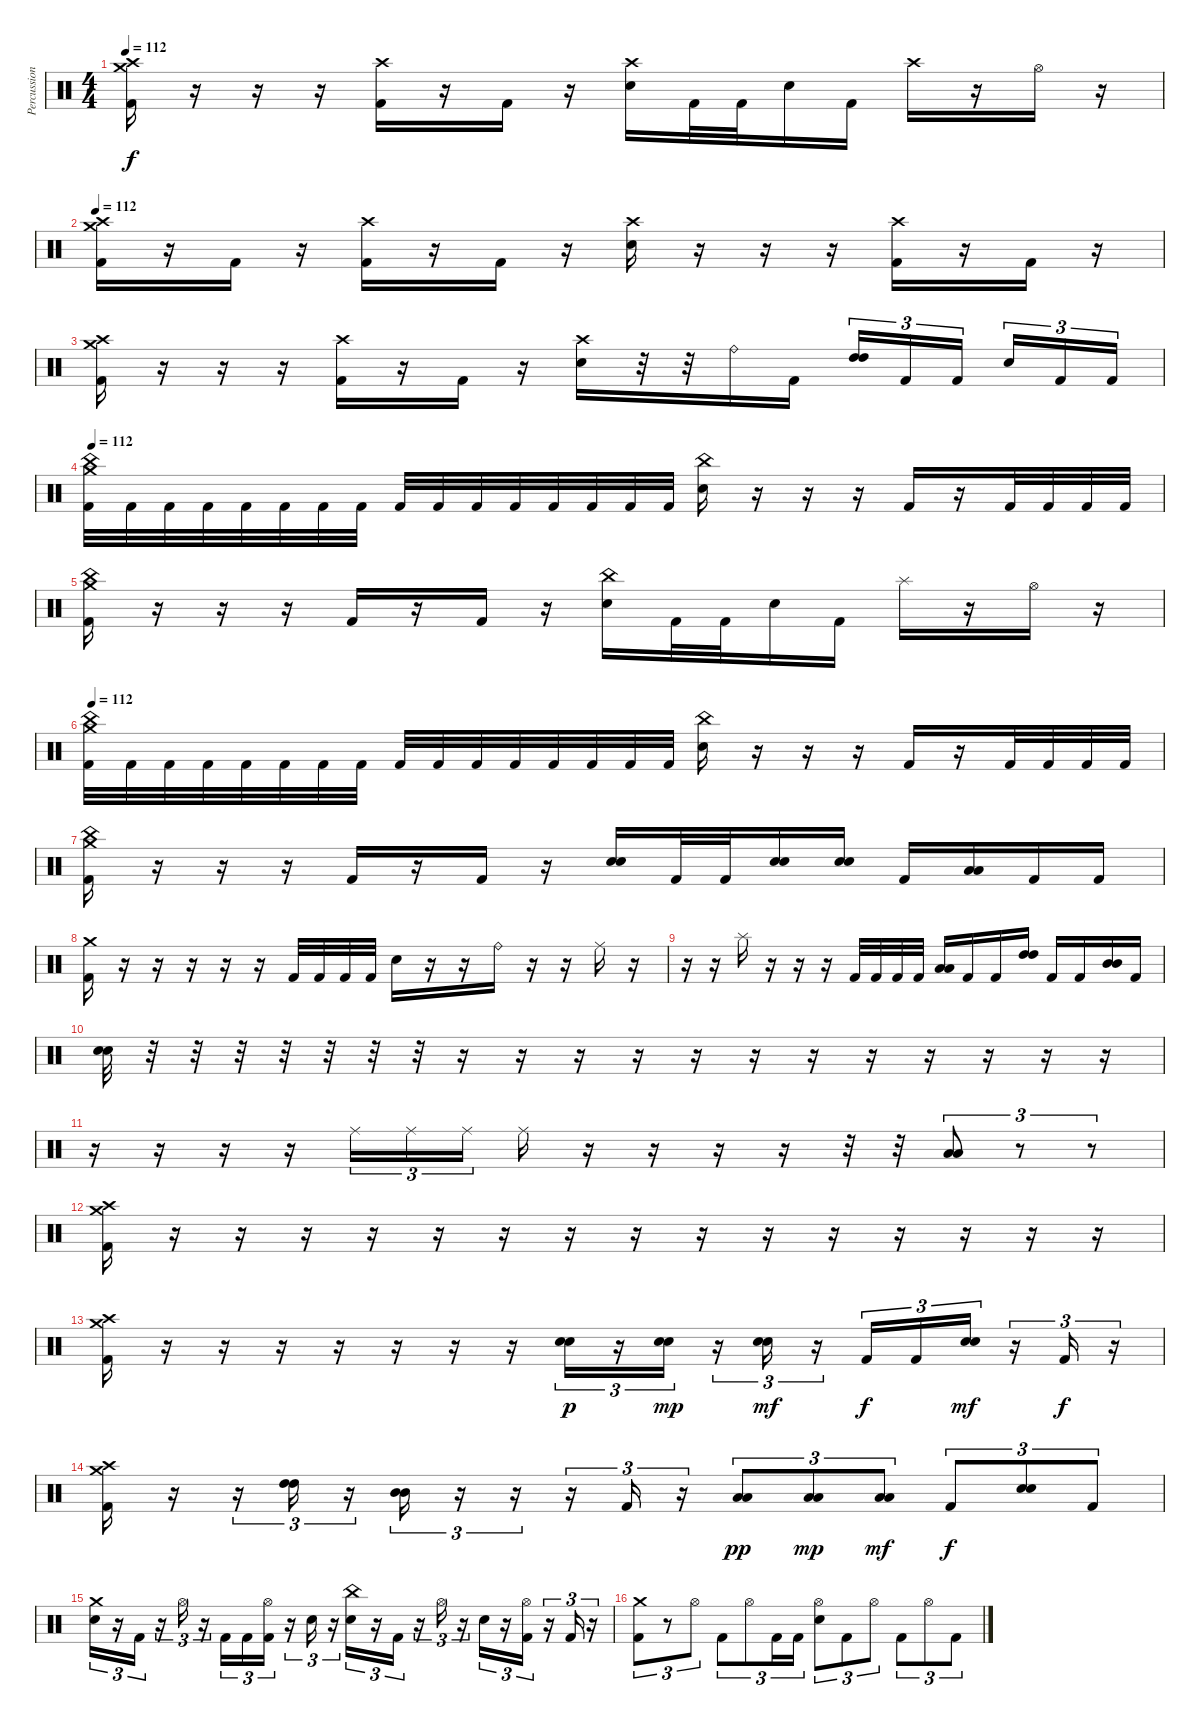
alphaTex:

\track ("Percussion" "Percussion") {instrument percussion}
\staff {score}
\articulation defaults
\ts (4 4)
\tempo 112
\clef neutral
\ks c
("Crash medium (hit)" "Crash high (hit)" "Kick (hit) 2").16{dy f} r.16 r.16 r.16 ("Crash high (hit)" "Kick (hit) 2").16 r.16 "Kick (hit) 2".16 r.16 ("Crash high (hit)" "Electric Snare (hit)").16 "Kick (hit) 2".32 "Kick (hit) 2".32 "Electric Snare (hit)".16 "Kick (hit) 2".16 "Crash high (hit)".16 r.16 "Hi-Hat (open)".16 r.16 |
\tempo 112
("Crash medium (hit)" "Crash high (hit)" "Kick (hit) 2").16 r.16 "Kick (hit) 2".16 r.16 ("Crash high (hit)" "Kick (hit) 2").16 r.16 "Kick (hit) 2".16 r.16 ("Crash high (hit)" "Electric Snare (hit)").16 r.16 r.16 r.16 ("Crash high (hit)" "Kick (hit) 2").16 r.16 "Kick (hit) 2".16 r.16 |
("Crash medium (hit)" "Crash high (hit)" "Kick (hit) 2").16 r.16 r.16 r.16 ("Crash high (hit)" "Kick (hit) 2").16 r.16 "Kick (hit) 2".16 r.16 ("Crash high (hit)" "Electric Snare (hit)").16 r.32 r.32 "Ride (bell)".16 "Kick (hit) 2".16 ("High Tom (hit)" "High Tom (hit)").16{tu (3 2) bu 60} "Kick (hit) 2".16{tu (3 2)} "Kick (hit) 2".16{tu (3 2) beam splitsecondary} "Electric Snare (hit)".16{tu (3 2)} "Kick (hit) 2".16{tu (3 2)} "Kick (hit) 2".16{tu (3 2)} |
\tempo 112
("Crash medium (hit)" "China (hit)" "Kick (hit) 2").32 "Kick (hit) 2".32 "Kick (hit) 2".32 "Kick (hit) 2".32 "Kick (hit) 2".32 "Kick (hit) 2".32 "Kick (hit) 2".32 "Kick (hit) 2".32 "Kick (hit) 2".32 "Kick (hit) 2".32 "Kick (hit) 2".32 "Kick (hit) 2".32 "Kick (hit) 2".32 "Kick (hit) 2".32 "Kick (hit) 2".32 "Kick (hit) 2".32 ("China (hit)" "Electric Snare (hit)").16 r.16 r.16 r.16 "Kick (hit) 2".16 r.16 "Kick (hit) 2".32 "Kick (hit) 2".32 "Kick (hit) 2".32 "Kick (hit) 2".32 |
("Crash medium (hit)" "China (hit)" "Kick (hit) 2").16 r.16 r.16 r.16 "Kick (hit) 2".16 r.16 "Kick (hit) 2".16 r.16 ("China (hit)" "Electric Snare (hit)").16 "Kick (hit) 2".32 "Kick (hit) 2".32 "Electric Snare (hit)".16 "Kick (hit) 2".16 "Splash (hit)".16 r.16 "Hi-Hat (open)".16 r.16 |
\tempo 112
("Crash medium (hit)" "China (hit)" "Kick (hit) 2").32 "Kick (hit) 2".32 "Kick (hit) 2".32 "Kick (hit) 2".32 "Kick (hit) 2".32 "Kick (hit) 2".32 "Kick (hit) 2".32 "Kick (hit) 2".32 "Kick (hit) 2".32 "Kick (hit) 2".32 "Kick (hit) 2".32 "Kick (hit) 2".32 "Kick (hit) 2".32 "Kick (hit) 2".32 "Kick (hit) 2".32 "Kick (hit) 2".32 ("China (hit)" "Electric Snare (hit)").16 r.16 r.16 r.16 "Kick (hit) 2".16 r.16 "Kick (hit) 2".32 "Kick (hit) 2".32 "Kick (hit) 2".32 "Kick (hit) 2".32 |
("Crash medium (hit)" "China (hit)" "Kick (hit) 2").16 r.16 r.16 r.16 "Kick (hit) 2".16 r.16 "Kick (hit) 2".16 r.16 ("Electric Snare (hit)" "Electric Snare (hit)").16{bu 60} "Kick (hit) 2".32 "Kick (hit) 2".32 ("Electric Snare (hit)" "Electric Snare (hit)").16{bu 60} ("Electric Snare (hit)" "Electric Snare (hit)").16{bu 60} "Kick (hit) 2".16 ("Low Tom (hit)" "Low Tom (hit)").16{bu 60} "Kick (hit) 2".16 "Kick (hit) 2".16 |
("Crash medium (hit)" "Kick (hit) 2").16 r.16 r.16 r.16 r.16 r.16 "Kick (hit) 2".32 "Kick (hit) 2".32 "Kick (hit) 2".32 "Kick (hit) 2".32 "Electric Snare (hit)".16 r.16 r.16 "Ride (bell)".16 r.16 r.16 "Ride (middle)".16 r.16 |
r.16 r.16 "Splash (hit)".16 r.16 r.16 r.16 "Kick (hit) 2".32 "Kick (hit) 2".32 "Kick (hit) 2".32 "Kick (hit) 2".32 ("Low Tom (hit)" "Low Tom (hit)").16{bu 60} "Kick (hit) 2".16 "Kick (hit) 2".16 ("High Tom (hit)" "High Tom (hit)").16{bu 60} "Kick (hit) 2".16 "Kick (hit) 2".16 ("Mid Tom (hit)" "Mid Tom (hit)").16{bu 60} "Kick (hit) 2".16 |
("Electric Snare (hit)" "Electric Snare (hit)").32{bu 60} r.32 r.32 r.32 r.32 r.32 r.32 r.32 r.16 r.16 r.16 r.16 r.16 r.16 r.16 r.16 r.16 r.16 r.16 r.16 |
r.16 r.16 r.16 r.16 "Ride (middle)".16{tu (3 2)} "Ride (middle)".16{tu (3 2)} "Ride (middle)".16{tu (3 2) beam splitsecondary} "Ride (middle)".16 r.16 r.16 r.16 r.16 r.32 r.32 ("Low Tom (hit)" "Low Tom (hit)").8{tu (3 2)} r.8{tu (3 2)} r.8{tu (3 2)} |
("Crash medium (hit)" "Crash high (hit)" "Kick (hit) 2").16 r.16 r.16 r.16 r.16 r.16 r.16 r.16 r.16 r.16 r.16 r.16 r.16 r.16 r.16 r.16 |
("Crash medium (hit)" "Crash high (hit)" "Kick (hit) 2").16 r.16 r.16 r.16 r.16 r.16 r.16 r.16 ("Electric Snare (hit)" "Electric Snare (hit)").16{tu (3 2) bu 60 dy p} r.16{tu (3 2)} ("Electric Snare (hit)" "Electric Snare (hit)").16{tu (3 2) bu 60 dy mp} r.16{tu (3 2)} ("Electric Snare (hit)" "Electric Snare (hit)").16{tu (3 2) bu 60 dy mf} r.16{tu (3 2)} "Kick (hit) 2".16{tu (3 2) dy f} "Kick (hit) 2".16{tu (3 2)} ("Electric Snare (hit)" "Electric Snare (hit)").16{tu (3 2) dy mf} r.16{tu (3 2)} "Kick (hit) 2".16{tu (3 2) dy f} r.16{tu (3 2)} |
("Crash medium (hit)" "Crash high (hit)" "Kick (hit) 2").16 r.16 r.16{tu (3 2)} ("High Tom (hit)" "High Tom (hit)").16{tu (3 2) bu 60} r.16{tu (3 2)} ("Mid Tom (hit)" "Mid Tom (hit)").16{tu (3 2) bu 60} r.16{tu (3 2)} r.16{tu (3 2)} r.16{tu (3 2)} "Kick (hit) 2".16{tu (3 2)} r.16{tu (3 2)} ("Low Tom (hit)" "Low Tom (hit)").8{tu (3 2) bu 60 dy pp} ("Low Tom (hit)" "Low Tom (hit)").8{tu (3 2) bu 60 dy mp} ("Low Tom (hit)" "Low Tom (hit)").8{tu (3 2) bu 60 dy mf} "Kick (hit) 2".8{tu (3 2) dy f} ("Electric Snare (hit)" "Electric Snare (hit)").8{tu (3 2) bu 60} "Kick (hit) 2".8{tu (3 2)} |
("Crash medium (hit)" "Electric Snare (hit)").16{tu (3 2)} r.16{tu (3 2)} "Kick (hit) 2".16{tu (3 2)} r.16{tu (3 2)} "Hi-Hat (open)".16{tu (3 2)} r.16{tu (3 2)} "Kick (hit) 2".16{tu (3 2)} "Kick (hit) 2".16{tu (3 2)} ("Hi-Hat (open)" "Kick (hit) 2").16{tu (3 2)} r.16{tu (3 2)} "Electric Snare (hit)".16{tu (3 2)} r.16{tu (3 2)} ("China (hit)" "Electric Snare (hit)").16{tu (3 2)} r.16{tu (3 2)} "Kick (hit) 2".16{tu (3 2)} r.16{tu (3 2)} "Hi-Hat (open)".16{tu (3 2)} r.16{tu (3 2)} "Electric Snare (hit)".16{tu (3 2)} r.16{tu (3 2)} ("Hi-Hat (open)" "Kick (hit) 2").16{tu (3 2)} r.16{tu (3 2)} "Kick (hit) 2".16{tu (3 2)} r.16{tu (3 2)} |
("Crash medium (hit)" "Kick (hit) 2").8{tu (3 2)} r.8{tu (3 2)} "Hi-Hat (open)".8{tu (3 2)} "Kick (hit) 2".8{tu (3 2)} "Hi-Hat (open)".8{tu (3 2)} "Kick (hit) 2".16{tu (3 2)} "Kick (hit) 2".16{tu (3 2)} ("Hi-Hat (open)" "Electric Snare (hit)").8{tu (3 2)} "Kick (hit) 2".8{tu (3 2)} "Hi-Hat (open)".8{tu (3 2)} "Kick (hit) 2".8{tu (3 2)} "Hi-Hat (open)".8{tu (3 2)} "Kick (hit) 2".8{tu (3 2)}
